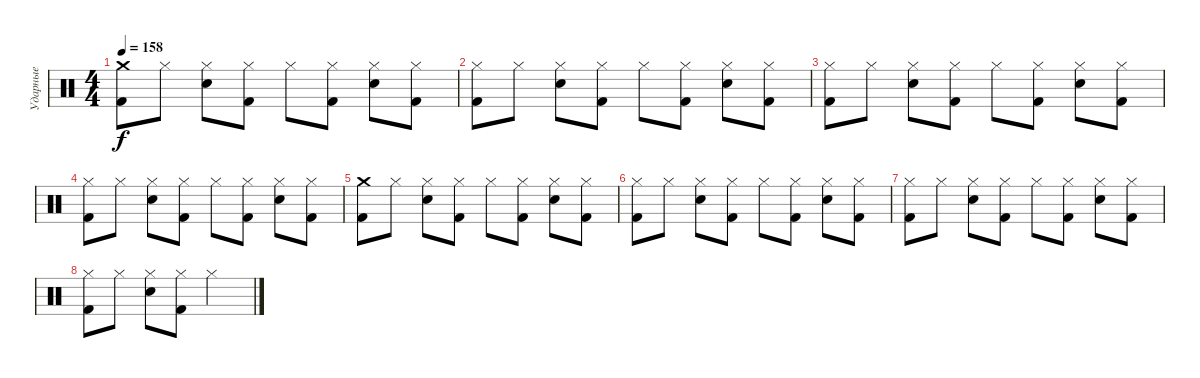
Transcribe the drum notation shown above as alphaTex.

\track ("Ударные" "Ударные") {instrument percussion}
\staff {score}
\articulation defaults
\ts (4 4)
\tempo 158
\clef neutral
\ks c
("Crash medium (hit)" "Kick (hit) 2").8{dy f} "Hi-Hat (closed)".8 ("Hi-Hat (closed)" "Electric Snare (hit)").8 ("Hi-Hat (closed)" "Kick (hit) 2").8 "Hi-Hat (closed)".8 ("Hi-Hat (closed)" "Kick (hit) 2").8 ("Hi-Hat (closed)" "Electric Snare (hit)").8 ("Hi-Hat (closed)" "Kick (hit) 2").8 |
("Hi-Hat (closed)" "Kick (hit) 2").8 "Hi-Hat (closed)".8 ("Hi-Hat (closed)" "Electric Snare (hit)").8 ("Hi-Hat (closed)" "Kick (hit) 2").8 "Hi-Hat (closed)".8 ("Hi-Hat (closed)" "Kick (hit) 2").8 ("Hi-Hat (closed)" "Electric Snare (hit)").8 ("Hi-Hat (closed)" "Kick (hit) 2").8 |
("Hi-Hat (closed)" "Kick (hit) 2").8 "Hi-Hat (closed)".8 ("Hi-Hat (closed)" "Electric Snare (hit)").8 ("Hi-Hat (closed)" "Kick (hit) 2").8 "Hi-Hat (closed)".8 ("Hi-Hat (closed)" "Kick (hit) 2").8 ("Hi-Hat (closed)" "Electric Snare (hit)").8 ("Hi-Hat (closed)" "Kick (hit) 2").8 |
("Hi-Hat (closed)" "Kick (hit) 2").8 "Hi-Hat (closed)".8 ("Hi-Hat (closed)" "Electric Snare (hit)").8 ("Hi-Hat (closed)" "Kick (hit) 2").8 "Hi-Hat (closed)".8 ("Hi-Hat (closed)" "Kick (hit) 2").8 ("Hi-Hat (closed)" "Electric Snare (hit)").8 ("Hi-Hat (closed)" "Kick (hit) 2").8 |
("Crash medium (hit)" "Kick (hit) 2").8 "Hi-Hat (closed)".8 ("Hi-Hat (closed)" "Electric Snare (hit)").8 ("Hi-Hat (closed)" "Kick (hit) 2").8 "Hi-Hat (closed)".8 ("Hi-Hat (closed)" "Kick (hit) 2").8 ("Hi-Hat (closed)" "Electric Snare (hit)").8 ("Hi-Hat (closed)" "Kick (hit) 2").8 |
("Hi-Hat (closed)" "Kick (hit) 2").8 "Hi-Hat (closed)".8 ("Hi-Hat (closed)" "Electric Snare (hit)").8 ("Hi-Hat (closed)" "Kick (hit) 2").8 "Hi-Hat (closed)".8 ("Hi-Hat (closed)" "Kick (hit) 2").8 ("Hi-Hat (closed)" "Electric Snare (hit)").8 ("Hi-Hat (closed)" "Kick (hit) 2").8 |
("Hi-Hat (closed)" "Kick (hit) 2").8 "Hi-Hat (closed)".8 ("Hi-Hat (closed)" "Electric Snare (hit)").8 ("Hi-Hat (closed)" "Kick (hit) 2").8 "Hi-Hat (closed)".8 ("Hi-Hat (closed)" "Kick (hit) 2").8 ("Hi-Hat (closed)" "Electric Snare (hit)").8 ("Hi-Hat (closed)" "Kick (hit) 2").8 |
("Hi-Hat (closed)" "Kick (hit) 2").8 "Hi-Hat (closed)".8 ("Hi-Hat (closed)" "Electric Snare (hit)").8 ("Hi-Hat (closed)" "Kick (hit) 2").8 "Hi-Hat (closed)".2
